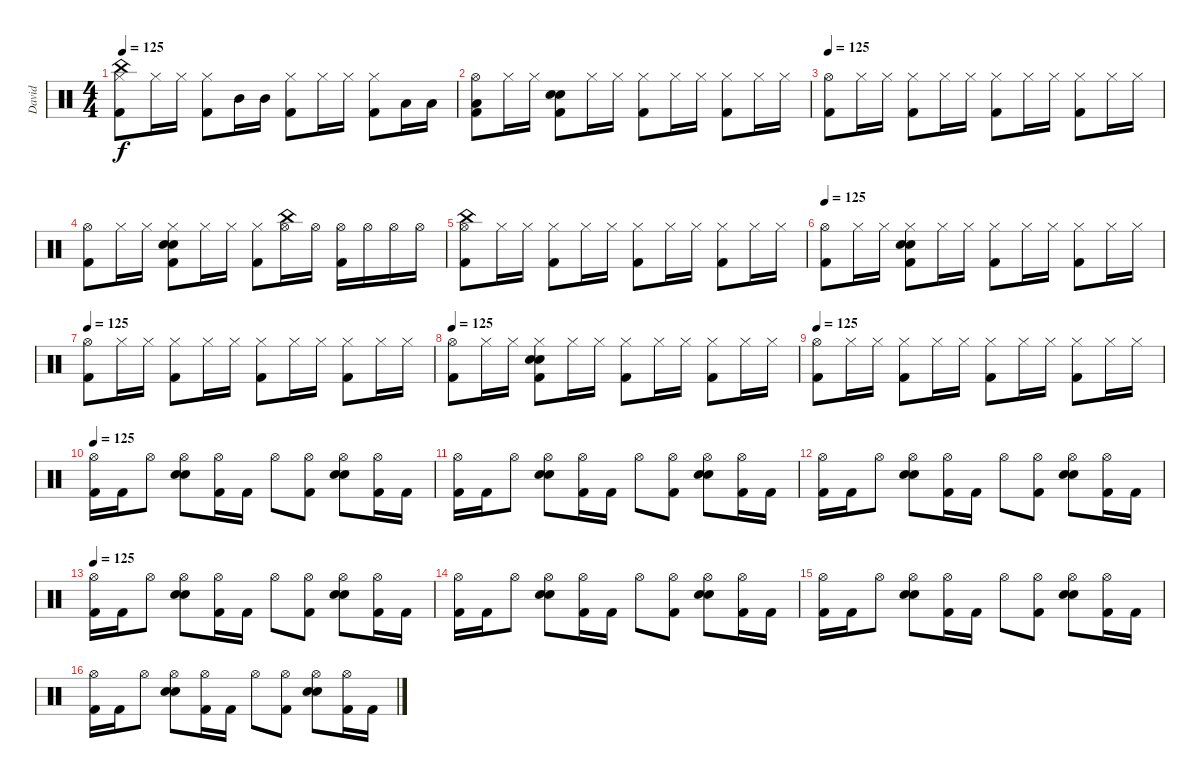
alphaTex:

\track ("David" "David") {instrument percussion}
\staff {score}
\articulation defaults
\ts (4 4)
\tempo 125
\clef neutral
\ks c
("China (hit)" "Hi-Hat (closed)" "Kick (hit) 2").8{dy f} "Hi-Hat (closed)".16 "Hi-Hat (closed)".16 ("Hi-Hat (closed)" "Kick (hit) 2").8 "Mid Tom (hit)".16 "Mid Tom (hit)".16 ("Hi-Hat (closed)" "Kick (hit) 2").8 "Hi-Hat (closed)".16 "Hi-Hat (closed)".16 ("Hi-Hat (closed)" "Kick (hit) 2").8 "Low Tom (hit)".16 "Low Tom (hit)".16 |
("Low Floor Tom (hit)" "Hi-Hat (open)" "Kick (hit) 2").8 "Hi-Hat (closed)".16 "Hi-Hat (closed)".16 ("Electric Snare (hit)" "Snare (hit) 2" "Kick (hit) 2").8 "Hi-Hat (closed)".16 "Hi-Hat (closed)".16 ("Hi-Hat (closed)" "Kick (hit) 2").8 "Hi-Hat (closed)".16 "Hi-Hat (closed)".16 ("Hi-Hat (closed)" "Kick (hit) 2").8 "Hi-Hat (closed)".16 "Hi-Hat (closed)".16 |
\tempo 125
("Hi-Hat (open)" "Kick (hit) 2").8 "Hi-Hat (closed)".16 "Hi-Hat (closed)".16 ("Hi-Hat (closed)" "Kick (hit) 2").8 "Hi-Hat (closed)".16 "Hi-Hat (closed)".16 ("Hi-Hat (closed)" "Kick (hit) 2").8 "Hi-Hat (closed)".16 "Hi-Hat (closed)".16 ("Hi-Hat (closed)" "Kick (hit) 2").8 "Hi-Hat (closed)".16 "Hi-Hat (closed)".16 |
("Hi-Hat (open)" "Kick (hit) 2").8 "Hi-Hat (closed)".16 "Hi-Hat (closed)".16 ("Snare (hit) 2" "Hi-Hat (closed)" "Electric Snare (hit)" "Kick (hit) 2").8 "Hi-Hat (closed)".16 "Hi-Hat (closed)".16 ("Hi-Hat (closed)" "Kick (hit) 2").8 ("China (hit)" "Hi-Hat (open)").16 "Hi-Hat (open)".16 ("Hi-Hat (open)" "Kick (hit) 2").16 "Hi-Hat (open)".16 "Hi-Hat (open)".16 "Hi-Hat (open)".16 |
("China (hit)" "Hi-Hat (open)" "Kick (hit) 2").8 "Hi-Hat (closed)".16 "Hi-Hat (closed)".16 ("Hi-Hat (closed)" "Kick (hit) 2").8 "Hi-Hat (closed)".16 "Hi-Hat (closed)".16 ("Hi-Hat (closed)" "Kick (hit) 2").8 "Hi-Hat (closed)".16 "Hi-Hat (closed)".16 ("Hi-Hat (closed)" "Kick (hit) 2").8 "Hi-Hat (closed)".16 "Hi-Hat (closed)".16 |
\tempo 125
("Hi-Hat (open)" "Kick (hit) 2").8 "Hi-Hat (closed)".16 "Hi-Hat (closed)".16 ("Snare (hit) 2" "Hi-Hat (closed)" "Electric Snare (hit)" "Kick (hit) 2").8 "Hi-Hat (closed)".16 "Hi-Hat (closed)".16 ("Hi-Hat (closed)" "Kick (hit) 2").8 "Hi-Hat (closed)".16 "Hi-Hat (closed)".16 ("Hi-Hat (closed)" "Kick (hit) 2").8 "Hi-Hat (closed)".16 "Hi-Hat (closed)".16 |
\tempo 125
("Hi-Hat (open)" "Kick (hit) 2").8 "Hi-Hat (closed)".16 "Hi-Hat (closed)".16 ("Hi-Hat (closed)" "Kick (hit) 2").8 "Hi-Hat (closed)".16 "Hi-Hat (closed)".16 ("Hi-Hat (closed)" "Kick (hit) 2").8 "Hi-Hat (closed)".16 "Hi-Hat (closed)".16 ("Hi-Hat (closed)" "Kick (hit) 2").8 "Hi-Hat (closed)".16 "Hi-Hat (closed)".16 |
\tempo 125
("Hi-Hat (open)" "Kick (hit) 2").8 "Hi-Hat (closed)".16 "Hi-Hat (closed)".16 ("Snare (hit) 2" "Hi-Hat (closed)" "Electric Snare (hit)" "Kick (hit) 2").8 "Hi-Hat (closed)".16 "Hi-Hat (closed)".16 ("Hi-Hat (closed)" "Kick (hit) 2").8 "Hi-Hat (closed)".16 "Hi-Hat (closed)".16 ("Hi-Hat (closed)" "Kick (hit) 2").8 "Hi-Hat (closed)".16 "Hi-Hat (closed)".16 |
\tempo 125
("Hi-Hat (open)" "Kick (hit) 2").8 "Hi-Hat (closed)".16 "Hi-Hat (closed)".16 ("Hi-Hat (closed)" "Kick (hit) 2").8 "Hi-Hat (closed)".16 "Hi-Hat (closed)".16 ("Hi-Hat (closed)" "Kick (hit) 2").8 "Hi-Hat (closed)".16 "Hi-Hat (closed)".16 ("Hi-Hat (closed)" "Kick (hit) 2").8 "Hi-Hat (closed)".16 "Hi-Hat (closed)".16 |
\tempo 125
("Hi-Hat (open)" "Kick (hit) 2").16 "Kick (hit) 2".16 "Hi-Hat (open)".8 ("Hi-Hat (open)" "Electric Snare (hit)" "Snare (hit) 2").8 ("Hi-Hat (open)" "Kick (hit) 2").16 "Kick (hit) 2".16 "Hi-Hat (open)".8 ("Hi-Hat (open)" "Kick (hit) 2").8 ("Hi-Hat (open)" "Electric Snare (hit)" "Snare (hit) 2").8 ("Hi-Hat (open)" "Kick (hit) 2").16 "Kick (hit) 2".16 |
("Hi-Hat (open)" "Kick (hit) 2").16 "Kick (hit) 2".16 "Hi-Hat (open)".8 ("Hi-Hat (open)" "Electric Snare (hit)" "Snare (hit) 2").8 ("Hi-Hat (open)" "Kick (hit) 2").16 "Kick (hit) 2".16 "Hi-Hat (open)".8 ("Hi-Hat (open)" "Kick (hit) 2").8 ("Hi-Hat (open)" "Electric Snare (hit)" "Snare (hit) 2").8 ("Hi-Hat (open)" "Kick (hit) 2").16 "Kick (hit) 2".16 |
("Hi-Hat (open)" "Kick (hit) 2").16 "Kick (hit) 2".16 "Hi-Hat (open)".8 ("Hi-Hat (open)" "Electric Snare (hit)" "Snare (hit) 2").8 ("Hi-Hat (open)" "Kick (hit) 2").16 "Kick (hit) 2".16 "Hi-Hat (open)".8 ("Hi-Hat (open)" "Kick (hit) 2").8 ("Hi-Hat (open)" "Electric Snare (hit)" "Snare (hit) 2").8 ("Hi-Hat (open)" "Kick (hit) 2").16 "Kick (hit) 2".16 |
\tempo 125
("Hi-Hat (open)" "Kick (hit) 2").16 "Kick (hit) 2".16 "Hi-Hat (open)".8 ("Hi-Hat (open)" "Electric Snare (hit)" "Snare (hit) 2").8 ("Hi-Hat (open)" "Kick (hit) 2").16 "Kick (hit) 2".16 "Hi-Hat (open)".8 ("Hi-Hat (open)" "Kick (hit) 2").8 ("Hi-Hat (open)" "Electric Snare (hit)" "Snare (hit) 2").8 ("Hi-Hat (open)" "Kick (hit) 2").16 "Kick (hit) 2".16 |
("Hi-Hat (open)" "Kick (hit) 2").16 "Kick (hit) 2".16 "Hi-Hat (open)".8 ("Hi-Hat (open)" "Electric Snare (hit)" "Snare (hit) 2").8 ("Hi-Hat (open)" "Kick (hit) 2").16 "Kick (hit) 2".16 "Hi-Hat (open)".8 ("Hi-Hat (open)" "Kick (hit) 2").8 ("Hi-Hat (open)" "Electric Snare (hit)" "Snare (hit) 2").8 ("Hi-Hat (open)" "Kick (hit) 2").16 "Kick (hit) 2".16 |
("Hi-Hat (open)" "Kick (hit) 2").16 "Kick (hit) 2".16 "Hi-Hat (open)".8 ("Hi-Hat (open)" "Electric Snare (hit)" "Snare (hit) 2").8 ("Hi-Hat (open)" "Kick (hit) 2").16 "Kick (hit) 2".16 "Hi-Hat (open)".8 ("Hi-Hat (open)" "Kick (hit) 2").8 ("Hi-Hat (open)" "Electric Snare (hit)" "Snare (hit) 2").8 ("Hi-Hat (open)" "Kick (hit) 2").16 "Kick (hit) 2".16 |
("Hi-Hat (open)" "Kick (hit) 2").16 "Kick (hit) 2".16 "Hi-Hat (open)".8 ("Hi-Hat (open)" "Electric Snare (hit)" "Snare (hit) 2").8 ("Hi-Hat (open)" "Kick (hit) 2").16 "Kick (hit) 2".16 "Hi-Hat (open)".8 ("Hi-Hat (open)" "Kick (hit) 2").8 ("Hi-Hat (open)" "Electric Snare (hit)" "Snare (hit) 2").8 ("Hi-Hat (open)" "Kick (hit) 2").16 "Kick (hit) 2".16
